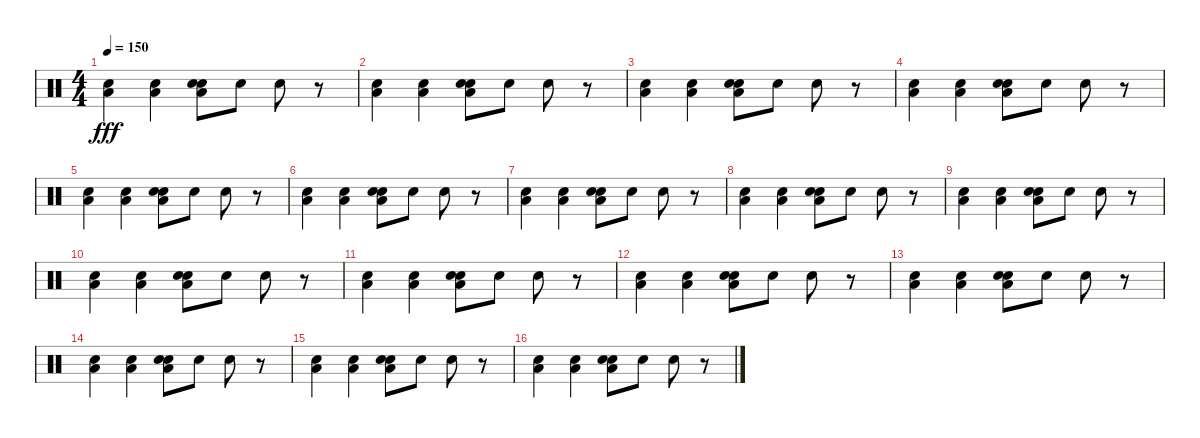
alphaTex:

\track "" {instrument percussion}
\staff {score}
\articulation defaults
\ts (4 4)
\tempo 150
\clef neutral
\ks c
("Low Floor Tom (hit)" "Snare (hit) 2").4{dy fff} ("Low Floor Tom (hit)" "Snare (hit) 2").4 ("Electric Snare (hit)" "Low Floor Tom (hit)" "Snare (hit) 2").8 "Electric Snare (hit)".8 "Electric Snare (hit)".8 r.8 |
("Low Floor Tom (hit)" "Electric Snare (hit)").4 ("Low Floor Tom (hit)" "Electric Snare (hit)").4 ("Electric Snare (hit)" "Low Floor Tom (hit)" "Electric Snare (hit)").8 "Electric Snare (hit)".8 "Electric Snare (hit)".8 r.8 |
("Low Floor Tom (hit)" "Electric Snare (hit)").4 ("Low Floor Tom (hit)" "Electric Snare (hit)").4 ("Electric Snare (hit)" "Low Floor Tom (hit)" "Electric Snare (hit)").8 "Electric Snare (hit)".8 "Electric Snare (hit)".8 r.8 |
("Low Floor Tom (hit)" "Electric Snare (hit)").4 ("Low Floor Tom (hit)" "Electric Snare (hit)").4 ("Electric Snare (hit)" "Low Floor Tom (hit)" "Electric Snare (hit)").8 "Electric Snare (hit)".8 "Electric Snare (hit)".8 r.8 |
("Low Floor Tom (hit)" "Electric Snare (hit)").4 ("Low Floor Tom (hit)" "Electric Snare (hit)").4 ("Electric Snare (hit)" "Low Floor Tom (hit)" "Electric Snare (hit)").8 "Electric Snare (hit)".8 "Electric Snare (hit)".8 r.8 |
("Low Floor Tom (hit)" "Snare (hit) 2").4 ("Low Floor Tom (hit)" "Snare (hit) 2").4 ("Electric Snare (hit)" "Low Floor Tom (hit)" "Snare (hit) 2").8 "Electric Snare (hit)".8 "Electric Snare (hit)".8 r.8 |
("Low Floor Tom (hit)" "Snare (hit) 2").4 ("Low Floor Tom (hit)" "Snare (hit) 2").4 ("Electric Snare (hit)" "Low Floor Tom (hit)" "Snare (hit) 2").8 "Electric Snare (hit)".8 "Electric Snare (hit)".8 r.8 |
("Low Floor Tom (hit)" "Electric Snare (hit)").4 ("Low Floor Tom (hit)" "Electric Snare (hit)").4 ("Electric Snare (hit)" "Low Floor Tom (hit)" "Electric Snare (hit)").8 "Electric Snare (hit)".8 "Electric Snare (hit)".8 r.8 |
("Low Floor Tom (hit)" "Electric Snare (hit)").4 ("Low Floor Tom (hit)" "Electric Snare (hit)").4 ("Electric Snare (hit)" "Low Floor Tom (hit)" "Electric Snare (hit)").8 "Electric Snare (hit)".8 "Electric Snare (hit)".8 r.8 |
("Low Floor Tom (hit)" "Electric Snare (hit)").4 ("Low Floor Tom (hit)" "Electric Snare (hit)").4 ("Electric Snare (hit)" "Low Floor Tom (hit)" "Electric Snare (hit)").8 "Electric Snare (hit)".8 "Electric Snare (hit)".8 r.8 |
("Low Floor Tom (hit)" "Electric Snare (hit)").4 ("Low Floor Tom (hit)" "Electric Snare (hit)").4 ("Electric Snare (hit)" "Low Floor Tom (hit)" "Electric Snare (hit)").8 "Electric Snare (hit)".8 "Electric Snare (hit)".8 r.8 |
("Low Floor Tom (hit)" "Snare (hit) 2").4 ("Low Floor Tom (hit)" "Snare (hit) 2").4 ("Electric Snare (hit)" "Low Floor Tom (hit)" "Snare (hit) 2").8 "Electric Snare (hit)".8 "Electric Snare (hit)".8 r.8 |
("Low Floor Tom (hit)" "Snare (hit) 2").4 ("Low Floor Tom (hit)" "Snare (hit) 2").4 ("Electric Snare (hit)" "Low Floor Tom (hit)" "Snare (hit) 2").8 "Electric Snare (hit)".8 "Electric Snare (hit)".8 r.8 |
("Low Floor Tom (hit)" "Electric Snare (hit)").4 ("Low Floor Tom (hit)" "Electric Snare (hit)").4 ("Electric Snare (hit)" "Low Floor Tom (hit)" "Electric Snare (hit)").8 "Electric Snare (hit)".8 "Electric Snare (hit)".8 r.8 |
("Low Floor Tom (hit)" "Electric Snare (hit)").4 ("Low Floor Tom (hit)" "Electric Snare (hit)").4 ("Electric Snare (hit)" "Low Floor Tom (hit)" "Electric Snare (hit)").8 "Electric Snare (hit)".8 "Electric Snare (hit)".8 r.8 |
("Low Floor Tom (hit)" "Electric Snare (hit)").4 ("Low Floor Tom (hit)" "Electric Snare (hit)").4 ("Electric Snare (hit)" "Low Floor Tom (hit)" "Electric Snare (hit)").8 "Electric Snare (hit)".8 "Electric Snare (hit)".8 r.8
